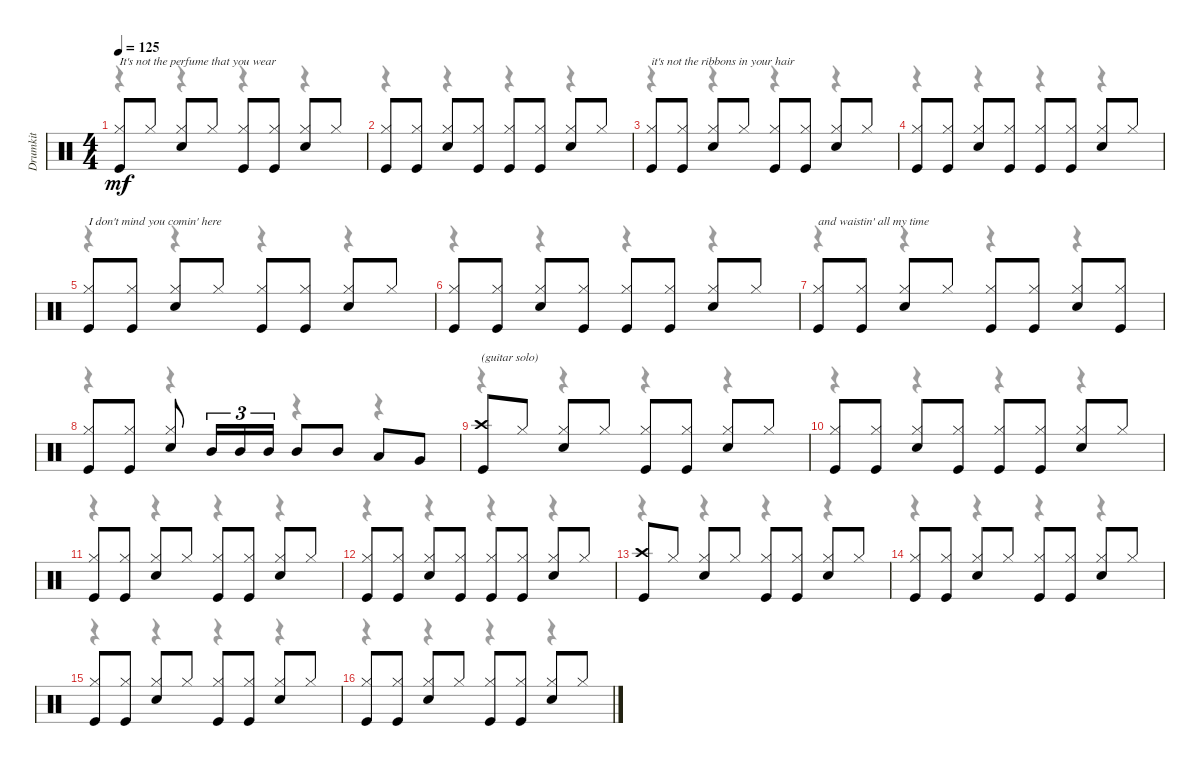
\track ("Drumkit" "Drumkit") {instrument percussion}
\staff {score}
\articulation defaults
\voice
\ts (4 4)
\tempo 125
\clef neutral
\ks c
("Hi-Hat (closed)" "Kick (hit)").8{txt "It's not the perfume that you wear" dy mf} "Hi-Hat (closed)".8 ("Hi-Hat (closed)" "Snare (hit) 2").8 "Hi-Hat (closed)".8 ("Hi-Hat (closed)" "Kick (hit)").8 ("Hi-Hat (closed)" "Kick (hit)").8 ("Hi-Hat (closed)" "Snare (hit) 2").8 "Hi-Hat (closed)".8 |
("Hi-Hat (closed)" "Kick (hit)").8 ("Hi-Hat (closed)" "Kick (hit)").8 ("Hi-Hat (closed)" "Snare (hit) 2").8 ("Hi-Hat (closed)" "Kick (hit)").8 ("Hi-Hat (closed)" "Kick (hit)").8 ("Hi-Hat (closed)" "Kick (hit)").8 ("Hi-Hat (closed)" "Snare (hit) 2").8 "Hi-Hat (closed)".8 |
("Hi-Hat (closed)" "Kick (hit)").8{txt "it's not the ribbons in your hair"} ("Hi-Hat (closed)" "Kick (hit)").8 ("Hi-Hat (closed)" "Snare (hit) 2").8 "Hi-Hat (closed)".8 ("Hi-Hat (closed)" "Kick (hit)").8 ("Hi-Hat (closed)" "Kick (hit)").8 ("Hi-Hat (closed)" "Snare (hit) 2").8 "Hi-Hat (closed)".8 |
("Hi-Hat (closed)" "Kick (hit)").8 ("Hi-Hat (closed)" "Kick (hit)").8 ("Hi-Hat (closed)" "Snare (hit) 2").8 ("Hi-Hat (closed)" "Kick (hit)").8 ("Hi-Hat (closed)" "Kick (hit)").8 ("Hi-Hat (closed)" "Kick (hit)").8 ("Hi-Hat (closed)" "Snare (hit) 2").8 "Hi-Hat (closed)".8 |
("Hi-Hat (closed)" "Kick (hit)").8{txt "I don't mind you comin' here"} ("Hi-Hat (closed)" "Kick (hit)").8 ("Hi-Hat (closed)" "Snare (hit) 2").8 "Hi-Hat (closed)".8 ("Hi-Hat (closed)" "Kick (hit)").8 ("Hi-Hat (closed)" "Kick (hit)").8 ("Hi-Hat (closed)" "Snare (hit) 2").8 "Hi-Hat (closed)".8 |
("Hi-Hat (closed)" "Kick (hit)").8 ("Hi-Hat (closed)" "Kick (hit)").8 ("Hi-Hat (closed)" "Snare (hit) 2").8 ("Hi-Hat (closed)" "Kick (hit)").8 ("Hi-Hat (closed)" "Kick (hit)").8 ("Hi-Hat (closed)" "Kick (hit)").8 ("Hi-Hat (closed)" "Snare (hit) 2").8 "Hi-Hat (closed)".8 |
("Hi-Hat (closed)" "Kick (hit)").8{txt "and waistin' all my time"} ("Hi-Hat (closed)" "Kick (hit)").8 ("Hi-Hat (closed)" "Snare (hit) 2").8 "Hi-Hat (closed)".8 ("Hi-Hat (closed)" "Kick (hit)").8 ("Hi-Hat (closed)" "Kick (hit)").8 ("Hi-Hat (closed)" "Snare (hit) 2").8 ("Hi-Hat (closed)" "Kick (hit)").8 |
("Hi-Hat (closed)" "Kick (hit)").8 ("Hi-Hat (closed)" "Kick (hit)").8 ("Hi-Hat (closed)" "Snare (hit) 2").8 "Mid Tom (hit)".16{tu (3 2)} "Mid Tom (hit)".16{tu (3 2)} "Mid Tom (hit)".16{tu (3 2)} "Mid Tom (hit)".8 "Mid Tom (hit)".8 "Low Tom (hit)".8 "Very Low Tom (hit)".8 |
("Kick (hit)" "Crash high (hit)").8{txt "(guitar solo)"} "Hi-Hat (closed)".8 ("Hi-Hat (closed)" "Snare (hit) 2").8 "Hi-Hat (closed)".8 ("Hi-Hat (closed)" "Kick (hit)").8 ("Hi-Hat (closed)" "Kick (hit)").8 ("Hi-Hat (closed)" "Snare (hit) 2").8 "Hi-Hat (closed)".8 |
("Hi-Hat (closed)" "Kick (hit)").8 ("Hi-Hat (closed)" "Kick (hit)").8 ("Hi-Hat (closed)" "Snare (hit) 2").8 ("Hi-Hat (closed)" "Kick (hit)").8 ("Hi-Hat (closed)" "Kick (hit)").8 ("Hi-Hat (closed)" "Kick (hit)").8 ("Hi-Hat (closed)" "Snare (hit) 2").8 "Hi-Hat (closed)".8 |
("Hi-Hat (closed)" "Kick (hit)").8 ("Hi-Hat (closed)" "Kick (hit)").8 ("Hi-Hat (closed)" "Snare (hit) 2").8 "Hi-Hat (closed)".8 ("Hi-Hat (closed)" "Kick (hit)").8 ("Hi-Hat (closed)" "Kick (hit)").8 ("Hi-Hat (closed)" "Snare (hit) 2").8 "Hi-Hat (closed)".8 |
("Hi-Hat (closed)" "Kick (hit)").8 ("Hi-Hat (closed)" "Kick (hit)").8 ("Hi-Hat (closed)" "Snare (hit) 2").8 ("Hi-Hat (closed)" "Kick (hit)").8 ("Hi-Hat (closed)" "Kick (hit)").8 ("Hi-Hat (closed)" "Kick (hit)").8 ("Hi-Hat (closed)" "Snare (hit) 2").8 "Hi-Hat (closed)".8 |
("Kick (hit)" "Crash high (hit)").8 "Hi-Hat (closed)".8 ("Hi-Hat (closed)" "Snare (hit) 2").8 "Hi-Hat (closed)".8 ("Hi-Hat (closed)" "Kick (hit)").8 ("Hi-Hat (closed)" "Kick (hit)").8 ("Hi-Hat (closed)" "Snare (hit) 2").8 "Hi-Hat (closed)".8 |
("Hi-Hat (closed)" "Kick (hit)").8 ("Hi-Hat (closed)" "Kick (hit)").8 ("Hi-Hat (closed)" "Snare (hit) 2").8 "Hi-Hat (closed)".8 ("Hi-Hat (closed)" "Kick (hit)").8 ("Hi-Hat (closed)" "Kick (hit)").8 ("Hi-Hat (closed)" "Snare (hit) 2").8 "Hi-Hat (closed)".8 |
("Hi-Hat (closed)" "Kick (hit)").8 ("Hi-Hat (closed)" "Kick (hit)").8 ("Hi-Hat (closed)" "Snare (hit) 2").8 "Hi-Hat (closed)".8 ("Hi-Hat (closed)" "Kick (hit)").8 ("Hi-Hat (closed)" "Kick (hit)").8 ("Hi-Hat (closed)" "Snare (hit) 2").8 "Hi-Hat (closed)".8 |
("Hi-Hat (closed)" "Kick (hit)").8 ("Hi-Hat (closed)" "Kick (hit)").8 ("Hi-Hat (closed)" "Snare (hit) 2").8 "Hi-Hat (closed)".8 ("Hi-Hat (closed)" "Kick (hit)").8 ("Hi-Hat (closed)" "Kick (hit)").8 ("Hi-Hat (closed)" "Snare (hit) 2").8 "Hi-Hat (closed)".8
\voice
\clef neutral
\ottava regular
\simile none
\ks c
r.4{dy f} r.4 r.4 r.4 |
r.4 r.4 r.4 r.4 |
r.4 r.4 r.4 r.4 |
r.4 r.4 r.4 r.4 |
r.4 r.4 r.4 r.4 |
r.4 r.4 r.4 r.4 |
r.4 r.4 r.4 r.4 |
r.4 r.4 r.4 r.4 |
r.4 r.4 r.4 r.4 |
r.4 r.4 r.4 r.4 |
r.4 r.4 r.4 r.4 |
r.4 r.4 r.4 r.4 |
r.4 r.4 r.4 r.4 |
r.4 r.4 r.4 r.4 |
r.4 r.4 r.4 r.4 |
r.4 r.4 r.4 r.4
